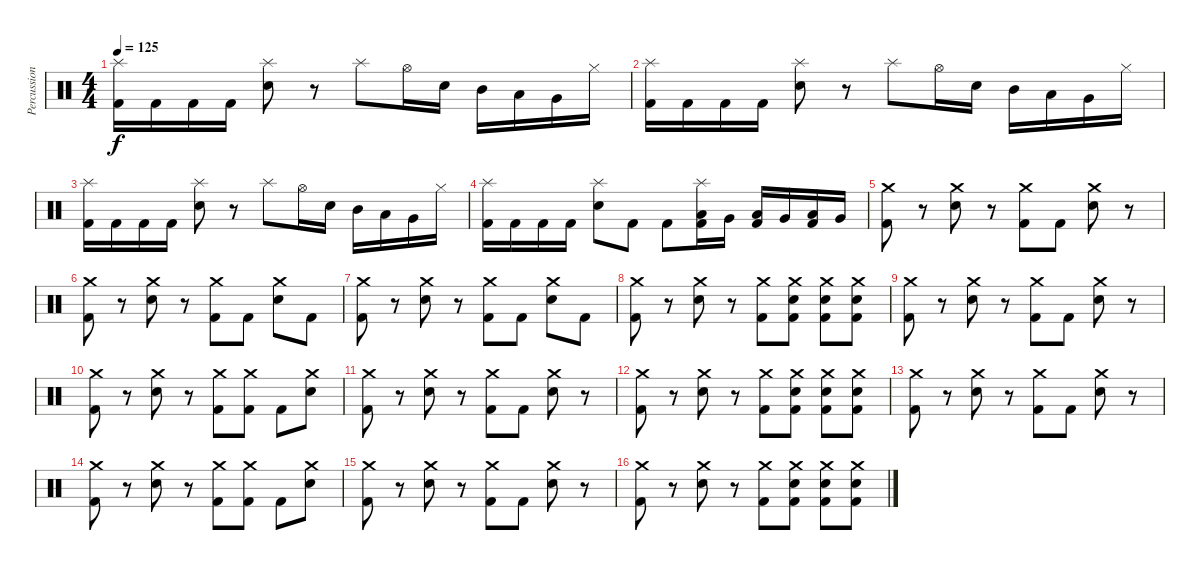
\track ("Percussion" "Percussion") {instrument percussion}
\staff {score}
\articulation defaults
\ts (4 4)
\tempo 125
\clef neutral
\ks c
("Splash (hit)" "Kick (hit) 2").16{dy f} "Kick (hit) 2".16 "Kick (hit) 2".16 "Kick (hit) 2".16 ("Splash (hit)" "Electric Snare (hit)").8 r.8 "Splash (hit)".8 "Hi-Hat (open)".16 "Electric Snare (hit)".16 "Mid Tom (hit)".16 "Low Tom (hit)".16 "Very Low Tom (hit)".16 "Hi-Hat (closed)".16 |
("Splash (hit)" "Kick (hit) 2").16 "Kick (hit) 2".16 "Kick (hit) 2".16 "Kick (hit) 2".16 ("Splash (hit)" "Electric Snare (hit)").8 r.8 "Splash (hit)".8 "Hi-Hat (open)".16 "Electric Snare (hit)".16 "Mid Tom (hit)".16 "Low Tom (hit)".16 "Very Low Tom (hit)".16 "Hi-Hat (closed)".16 |
("Splash (hit)" "Kick (hit) 2").16 "Kick (hit) 2".16 "Kick (hit) 2".16 "Kick (hit) 2".16 ("Splash (hit)" "Electric Snare (hit)").8 r.8 "Splash (hit)".8 "Hi-Hat (open)".16 "Electric Snare (hit)".16 "Mid Tom (hit)".16 "Low Tom (hit)".16 "Very Low Tom (hit)".16 "Hi-Hat (closed)".16 |
("Splash (hit)" "Kick (hit) 2").16 "Kick (hit) 2".16 "Kick (hit) 2".16 "Kick (hit) 2".16 ("Splash (hit)" "Electric Snare (hit)").8 "Kick (hit) 2".8 "Kick (hit) 2".8 ("Splash (hit)" "Low Floor Tom (hit)" "Kick (hit) 2").16 "Very Low Tom (hit)".16 ("Low Floor Tom (hit)" "Kick (hit) 2").16 "Very Low Tom (hit)".16 ("Low Floor Tom (hit)" "Kick (hit) 2").16 "Very Low Tom (hit)".16 |
("Crash medium (hit)" "Kick (hit) 2").8 r.8 ("Crash medium (hit)" "Electric Snare (hit)").8 r.8 ("Crash medium (hit)" "Kick (hit) 2").8 "Kick (hit) 2".8 ("Crash medium (hit)" "Electric Snare (hit)").8 r.8 |
("Crash medium (hit)" "Kick (hit) 2").8 r.8 ("Crash medium (hit)" "Electric Snare (hit)").8 r.8 ("Crash medium (hit)" "Kick (hit) 2").8 "Kick (hit) 2".8 ("Crash medium (hit)" "Electric Snare (hit)").8 "Kick (hit) 2".8 |
("Crash medium (hit)" "Kick (hit) 2").8 r.8 ("Crash medium (hit)" "Electric Snare (hit)").8 r.8 ("Crash medium (hit)" "Kick (hit) 2").8 "Kick (hit) 2".8 ("Crash medium (hit)" "Electric Snare (hit)").8 "Kick (hit) 2".8 |
("Crash medium (hit)" "Kick (hit) 2").8 r.8 ("Crash medium (hit)" "Electric Snare (hit)").8 r.8 ("Crash medium (hit)" "Kick (hit) 2").8 ("Crash medium (hit)" "Electric Snare (hit)" "Kick (hit) 2").8 ("Crash medium (hit)" "Electric Snare (hit)" "Kick (hit) 2").8 ("Crash medium (hit)" "Electric Snare (hit)" "Kick (hit) 2").8 |
("Crash medium (hit)" "Kick (hit) 2").8 r.8 ("Crash medium (hit)" "Electric Snare (hit)").8 r.8 ("Crash medium (hit)" "Kick (hit) 2").8 "Kick (hit) 2".8 ("Crash medium (hit)" "Electric Snare (hit)").8 r.8 |
("Crash medium (hit)" "Kick (hit) 2").8 r.8 ("Crash medium (hit)" "Electric Snare (hit)").8 r.8 ("Crash medium (hit)" "Kick (hit) 2").8 ("Crash medium (hit)" "Kick (hit) 2").8 "Kick (hit) 2".8 ("Crash medium (hit)" "Electric Snare (hit)").8 |
("Crash medium (hit)" "Kick (hit) 2").8 r.8 ("Crash medium (hit)" "Electric Snare (hit)").8 r.8 ("Crash medium (hit)" "Kick (hit) 2").8 "Kick (hit) 2".8 ("Crash medium (hit)" "Electric Snare (hit)").8 r.8 |
("Crash medium (hit)" "Kick (hit) 2").8 r.8 ("Crash medium (hit)" "Electric Snare (hit)").8 r.8 ("Crash medium (hit)" "Kick (hit) 2").8 ("Crash medium (hit)" "Electric Snare (hit)" "Kick (hit) 2").8 ("Crash medium (hit)" "Electric Snare (hit)" "Kick (hit) 2").8 ("Crash medium (hit)" "Electric Snare (hit)" "Kick (hit) 2").8 |
("Crash medium (hit)" "Kick (hit) 2").8 r.8 ("Crash medium (hit)" "Electric Snare (hit)").8 r.8 ("Crash medium (hit)" "Kick (hit) 2").8 "Kick (hit) 2".8 ("Crash medium (hit)" "Electric Snare (hit)").8 r.8 |
("Crash medium (hit)" "Kick (hit) 2").8 r.8 ("Crash medium (hit)" "Electric Snare (hit)").8 r.8 ("Crash medium (hit)" "Kick (hit) 2").8 ("Crash medium (hit)" "Kick (hit) 2").8 "Kick (hit) 2".8 ("Crash medium (hit)" "Electric Snare (hit)").8 |
("Crash medium (hit)" "Kick (hit) 2").8 r.8 ("Crash medium (hit)" "Electric Snare (hit)").8 r.8 ("Crash medium (hit)" "Kick (hit) 2").8 "Kick (hit) 2".8 ("Crash medium (hit)" "Electric Snare (hit)").8 r.8 |
("Crash medium (hit)" "Kick (hit) 2").8 r.8 ("Crash medium (hit)" "Electric Snare (hit)").8 r.8 ("Crash medium (hit)" "Kick (hit) 2").8 ("Crash medium (hit)" "Electric Snare (hit)" "Kick (hit) 2").8 ("Crash medium (hit)" "Electric Snare (hit)" "Kick (hit) 2").8 ("Crash medium (hit)" "Electric Snare (hit)" "Kick (hit) 2").8
